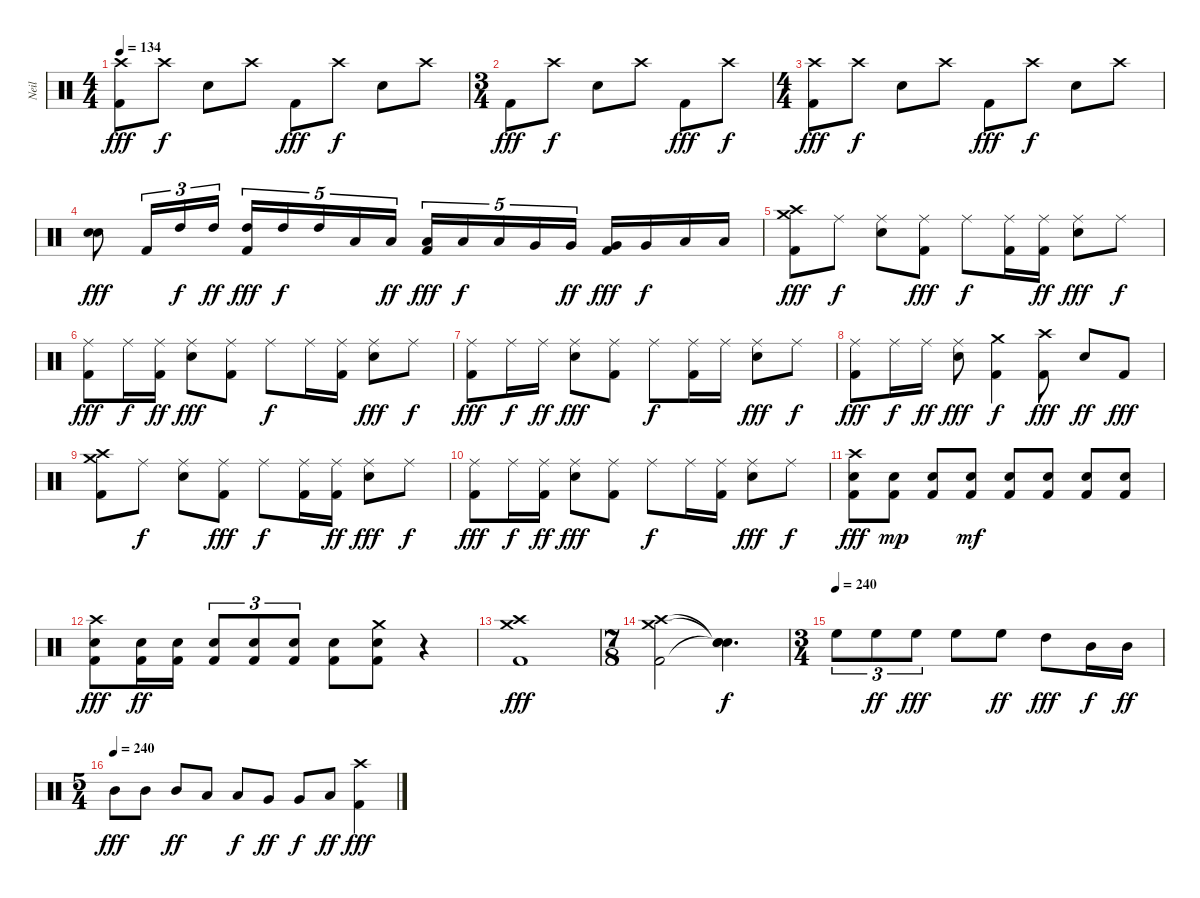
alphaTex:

\track ("Neil" "Neil") {instrument percussion}
\staff {score}
\articulation defaults
\ts (4 4)
\tempo 134
\clef neutral
\ks c
("Crash high (hit)" "Kick (hit) 2").8{dy fff} "Crash high (hit)".8{dy f} "Snare (hit) 2".8 "Crash high (hit)".8 "Kick (hit) 2".8{dy fff} "Crash high (hit)".8{dy f} "Snare (hit) 2".8 "Crash high (hit)".8 |
\ts (3 4)
"Kick (hit) 2".8{dy fff} "Crash high (hit)".8{dy f} "Snare (hit) 2".8 "Crash high (hit)".8 "Kick (hit) 2".8{dy fff} "Crash high (hit)".8{dy f} |
\ts (4 4)
("Crash high (hit)" "Kick (hit) 2").8{dy fff} "Crash high (hit)".8{dy f} "Snare (hit) 2".8 "Crash high (hit)".8 "Kick (hit) 2".8{dy fff} "Crash high (hit)".8{dy f} "Snare (hit) 2".8 "Crash high (hit)".8 |
("Snare (hit) 2" "Snare (hit) 2").8{dy fff} "Kick (hit) 2".16{tu (3 2)} "High Tom (hit)".16{tu (3 2) dy f} "High Tom (hit)".16{tu (3 2) dy ff} ("Kick (hit) 2" "High Tom (hit)").16{tu (5 4) dy fff} "High Tom (hit)".16{tu (5 4) dy f} "High Tom (hit)".16{tu (5 4)} "Low Tom (hit)".16{tu (5 4)} "Low Tom (hit)".16{tu (5 4) dy ff} ("Kick (hit) 2" "Low Tom (hit)").16{tu (5 4) dy fff} "Low Tom (hit)".16{tu (5 4) dy f} "Low Tom (hit)".16{tu (5 4)} "Very Low Tom (hit)".16{tu (5 4)} "Very Low Tom (hit)".16{tu (5 4) dy ff} ("Kick (hit) 2" "Very Low Tom (hit)").16{dy fff} "Very Low Tom (hit)".16{dy f} "Low Floor Tom (hit)".16 "Low Floor Tom (hit)".16 |
("Crash medium (hit)" "Crash high (hit)" "Kick (hit) 2").8{dy fff} "Ride (middle)".8{dy f} ("Ride (middle)" "Snare (hit) 2").8 ("Ride (middle)" "Kick (hit) 2").8{dy fff} "Ride (middle)".8{dy f} ("Ride (middle)" "Kick (hit) 2").16 ("Ride (middle)" "Kick (hit) 2").16{dy ff} ("Ride (middle)" "Snare (hit) 2").8{dy fff} "Ride (middle)".8{dy f} |
("Kick (hit) 2" "Ride (middle)").8{dy fff} "Ride (middle)".16{dy f} ("Kick (hit) 2" "Ride (middle)").16{dy ff} ("Snare (hit) 2" "Ride (middle)").8{dy fff} ("Ride (middle)" "Kick (hit) 2").8 "Ride (middle)".8{dy f} "Ride (middle)".16 ("Ride (middle)" "Kick (hit) 2").16 ("Ride (middle)" "Snare (hit) 2").8{dy fff} "Ride (middle)".8{dy f} |
("Kick (hit) 2" "Ride (middle)").8{dy fff} "Ride (middle)".16{dy f} "Ride (middle)".16{dy ff} ("Snare (hit) 2" "Ride (middle)").8{dy fff} ("Ride (middle)" "Kick (hit) 2").8 "Ride (middle)".8{dy f} ("Kick (hit) 2" "Ride (middle)").16 "Ride (middle)".16 ("Ride (middle)" "Snare (hit) 2").8{dy fff} "Ride (middle)".8{dy f} |
("Ride (middle)" "Kick (hit) 2").8{dy fff} "Ride (middle)".16{dy f} "Ride (middle)".16{dy ff} ("Snare (hit) 2" "Ride (middle)").8{dy fff} ("Crash medium (hit)" "Kick (hit) 2").4{dy f} ("Kick (hit) 2" "Crash high (hit)").8{dy fff} "Snare (hit) 2".8{dy ff} "Kick (hit) 2".8{dy fff} |
("Crash medium (hit)" "Crash high (hit)" "Kick (hit) 2").8{volume 16 balance 8} "Ride (middle)".8{dy f} ("Ride (middle)" "Snare (hit) 2").8 ("Ride (middle)" "Kick (hit) 2").8{dy fff} "Ride (middle)".8{dy f} ("Ride (middle)" "Kick (hit) 2").16 ("Ride (middle)" "Kick (hit) 2").16{dy ff} ("Ride (middle)" "Snare (hit) 2").8{dy fff} "Ride (middle)".8{dy f} |
("Kick (hit) 2" "Ride (middle)").8{dy fff} "Ride (middle)".16{dy f} ("Kick (hit) 2" "Ride (middle)").16{dy ff} ("Snare (hit) 2" "Ride (middle)").8{dy fff} ("Ride (middle)" "Kick (hit) 2").8 "Ride (middle)".8{dy f} "Ride (middle)".16 ("Ride (middle)" "Kick (hit) 2").16 ("Ride (middle)" "Snare (hit) 2").8{dy fff} "Ride (middle)".8{dy f} |
("Crash high (hit)" "Kick (hit) 2" "Snare (hit) 2").8{dy fff} ("Kick (hit) 2" "Snare (hit) 2").8{dy mp} ("Kick (hit) 2" "Snare (hit) 2").8 ("Kick (hit) 2" "Snare (hit) 2").8{dy mf} ("Kick (hit) 2" "Snare (hit) 2").8 ("Kick (hit) 2" "Snare (hit) 2").8 ("Kick (hit) 2" "Snare (hit) 2").8 ("Kick (hit) 2" "Snare (hit) 2").8 |
("Crash high (hit)" "Kick (hit) 2" "Snare (hit) 2").8{dy fff} ("Kick (hit) 2" "Snare (hit) 2").16{dy ff} ("Kick (hit) 2" "Snare (hit) 2").16 ("Kick (hit) 2" "Snare (hit) 2").8{tu (3 2)} ("Kick (hit) 2" "Snare (hit) 2").8{tu (3 2)} ("Kick (hit) 2" "Snare (hit) 2").8{tu (3 2)} ("Kick (hit) 2" "Snare (hit) 2").8 ("Kick (hit) 2" "Snare (hit) 2" "Crash medium (hit)").8 r.4 |
("Crash medium (hit)" "Crash high (hit)" "Kick (hit) 2").1{dy fff} |
\ts (7 8)
("Crash medium (hit)" "Crash high (hit)" "Kick (hit) 2").2 ("Snare (hit)"{t} "Snare (hit)"{t} "Snare (hit)"{t}).4{d dy f} |
\ts (3 4)
\tempo (240)
"High Floor Tom (hit)".8{tu (3 2)} "High Floor Tom (hit)".8{tu (3 2) dy ff} "High Floor Tom (hit)".8{tu (3 2) dy fff} "High Floor Tom (hit)".8 "High Floor Tom (hit)".8{dy ff} "High Tom (hit)".8{dy fff} "Mid Tom (hit)".16{dy f} "Mid Tom (hit)".16{dy ff} |
\ts (5 4)
\tempo (240)
"Mid Tom (hit)".8{dy fff} "Mid Tom (hit)".8 "Mid Tom (hit)".8{dy ff} "Low Tom (hit)".8 "Low Tom (hit)".8{dy f} "Very Low Tom (hit)".8{dy ff} "Very Low Tom (hit)".8{dy f} "Low Floor Tom (hit)".8{dy ff} ("Crash high (hit)" "Kick (hit) 2").4{dy fff}
